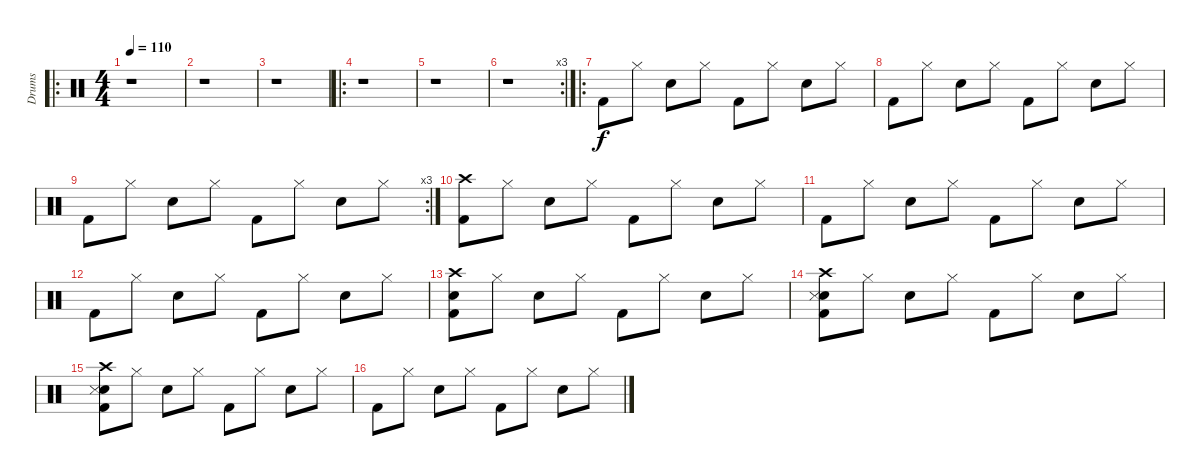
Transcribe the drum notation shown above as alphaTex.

\track ("Drums" "Drums") {instrument percussion}
\staff {score}
\articulation defaults
\ro
\ts (4 4)
\tempo 110
\clef neutral
\ks c
r.1{dy f} |
r.1 |
r.1 |
\ro
r.1 |
r.1 |
\rc 3
r.1 |
\ro "Kick (hit) 2".8 "Hi-Hat (closed)".8 "Snare (hit) 2".8 "Hi-Hat (closed)".8 "Kick (hit) 2".8 "Hi-Hat (closed)".8 "Snare (hit) 2".8 "Hi-Hat (closed)".8
|
"Kick (hit) 2".8 "Hi-Hat (closed)".8 "Snare (hit) 2".8 "Hi-Hat (closed)".8 "Kick (hit) 2".8 "Hi-Hat (closed)".8 "Snare (hit) 2".8 "Hi-Hat (closed)".8 |
\rc 3 "Kick (hit) 2".8 "Hi-Hat (closed)".8 "Snare (hit) 2".8 "Hi-Hat (closed)".8 "Kick (hit) 2".8 "Hi-Hat (closed)".8 "Snare (hit) 2".8 "Hi-Hat (closed)".8
|
("Kick (hit) 2" "Crash high (hit)").8 "Hi-Hat (closed)".8 "Snare (hit) 2".8 "Hi-Hat (closed)".8 "Kick (hit) 2".8 "Hi-Hat (closed)".8 "Snare (hit) 2".8 "Hi-Hat (closed)".8 |
"Kick (hit) 2".8 "Hi-Hat (closed)".8 "Snare (hit) 2".8 "Hi-Hat (closed)".8 "Kick (hit) 2".8 "Hi-Hat (closed)".8 "Snare (hit) 2".8 "Hi-Hat (closed)".8 |
"Kick (hit) 2".8 "Hi-Hat (closed)".8 "Snare (hit) 2".8 "Hi-Hat (closed)".8 "Kick (hit) 2".8 "Hi-Hat (closed)".8 "Snare (hit) 2".8 "Hi-Hat (closed)".8 |
("Kick (hit) 2" "Snare (hit) 2" "Crash high (hit)").8 "Hi-Hat (closed)".8 "Snare (hit) 2".8 "Hi-Hat (closed)".8 "Kick (hit) 2".8 "Hi-Hat (closed)".8 "Snare (hit) 2".8 "Hi-Hat (closed)".8 |
("Kick (hit) 2" "Snare (hit) 2" "Crash high (hit)" "Snare (side stick) 3").8 "Hi-Hat (closed)".8 "Snare (hit) 2".8 "Hi-Hat (closed)".8 "Kick (hit) 2".8 "Hi-Hat (closed)".8 "Snare (hit) 2".8 "Hi-Hat (closed)".8 |
("Kick (hit) 2" "Snare (hit) 2" "Crash high (hit)" "Snare (side stick) 3").8 "Hi-Hat (closed)".8 "Snare (hit) 2".8 "Hi-Hat (closed)".8 "Kick (hit) 2".8 "Hi-Hat (closed)".8 "Snare (hit) 2".8 "Hi-Hat (closed)".8 |
"Kick (hit) 2".8 "Hi-Hat (closed)".8 "Snare (hit) 2".8 "Hi-Hat (closed)".8 "Kick (hit) 2".8 "Hi-Hat (closed)".8 "Snare (hit) 2".8 "Hi-Hat (closed)".8
